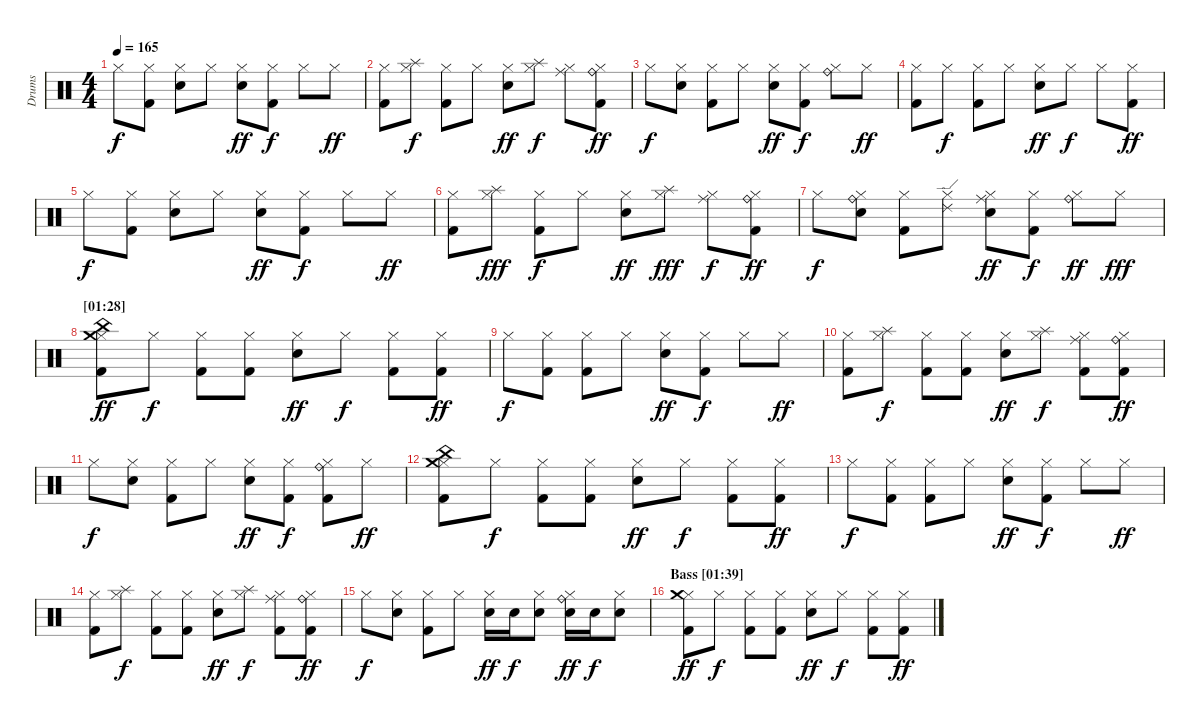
\track ("Drums" "Drums") {instrument percussion}
\staff {score}
\articulation defaults
\ts (4 4)
\tempo 165
\clef neutral
\ks c "Hi-Hat (closed)".8{dy f}
("Hi-Hat (closed)" "Kick (hit) 2").8 ("Hi-Hat (closed)" "Electric Snare (hit)").8 "Hi-Hat (closed)".8 ("Hi-Hat (closed)" "Electric Snare (hit)").8{dy ff} ("Hi-Hat (closed)" "Kick (hit) 2").8{dy f} "Hi-Hat (closed)".8 "Hi-Hat (closed)".8{dy ff} |
("Hi-Hat (closed)" "Kick (hit) 2").8 ("Hi-Hat (closed)" "Splash (hit)").8{dy f} ("Hi-Hat (closed)" "Kick (hit) 2").8 "Hi-Hat (closed)".8 ("Hi-Hat (closed)" "Electric Snare (hit)").8{dy ff} ("Hi-Hat (closed)" "Splash (hit)").8{dy f} ("Hi-Hat (closed)" "Ride (middle)").8 ("Hi-Hat (closed)" "Ride (bell)" "Kick (hit) 2").8{dy ff} |
"Hi-Hat (closed)".8{dy f} ("Hi-Hat (closed)" "Electric Snare (hit)").8 ("Hi-Hat (closed)" "Kick (hit) 2").8 "Hi-Hat (closed)".8 ("Hi-Hat (closed)" "Electric Snare (hit)").8{dy ff} ("Hi-Hat (closed)" "Kick (hit) 2").8{dy f} ("Hi-Hat (closed)" "Ride (bell)").8 "Hi-Hat (closed)".8{dy ff} |
("Hi-Hat (closed)" "Kick (hit) 2").8 "Hi-Hat (closed)".8{dy f} ("Hi-Hat (closed)" "Kick (hit) 2").8 "Hi-Hat (closed)".8 ("Hi-Hat (closed)" "Electric Snare (hit)").8{dy ff} "Hi-Hat (closed)".8{dy f} "Hi-Hat (closed)".8 ("Hi-Hat (closed)" "Kick (hit) 2").8{dy ff} |
"Hi-Hat (closed)".8{dy f} ("Hi-Hat (closed)" "Kick (hit) 2").8 ("Hi-Hat (closed)" "Electric Snare (hit)").8 "Hi-Hat (closed)".8 ("Hi-Hat (closed)" "Electric Snare (hit)").8{dy ff} ("Hi-Hat (closed)" "Kick (hit) 2").8{dy f} "Hi-Hat (closed)".8 "Hi-Hat (closed)".8{dy ff} |
\section ("" "")
("Hi-Hat (closed)" "Kick (hit) 2").8 ("Hi-Hat (closed)" "Splash (hit)").8{dy fff} ("Hi-Hat (closed)" "Kick (hit) 2").8{dy f} "Hi-Hat (closed)".8 ("Hi-Hat (closed)" "Electric Snare (hit)").8{dy ff} ("Hi-Hat (closed)" "Splash (hit)").8{dy fff} ("Hi-Hat (closed)" "Ride (middle)").8{dy f} ("Hi-Hat (closed)" "Ride (bell)" "Kick (hit) 2").8{dy ff} |
"Hi-Hat (closed)".8{dy f} ("Hi-Hat (closed)" "Ride (bell)" "Electric Snare (hit)").8 ("Hi-Hat (closed)" "Kick (hit) 2").8 ("Hi-Hat (closed)" "Ride (edge) 2").8 ("Hi-Hat (closed)" "Ride (middle)" "Electric Snare (hit)").8{dy ff} ("Hi-Hat (closed)" "Kick (hit) 2").8{dy f} ("Hi-Hat (closed)" "Ride (bell)").8{dy ff} "Hi-Hat (closed)".8{dy fff} |
\section ("" "[01:28]")
("Hi-Hat (closed)" "China (hit)" "Crash medium (hit)" "Kick (hit) 2").8{dy ff} "Hi-Hat (closed)".8{dy f} ("Hi-Hat (closed)" "Kick (hit) 2").8 ("Hi-Hat (closed)" "Kick (hit) 2").8 ("Hi-Hat (closed)" "Electric Snare (hit)").8{dy ff} "Hi-Hat (closed)".8{dy f} ("Hi-Hat (closed)" "Kick (hit) 2").8 ("Hi-Hat (closed)" "Kick (hit) 2").8{dy ff} |
"Hi-Hat (closed)".8{dy f} ("Hi-Hat (closed)" "Kick (hit) 2").8 ("Hi-Hat (closed)" "Kick (hit) 2").8 "Hi-Hat (closed)".8 ("Hi-Hat (closed)" "Electric Snare (hit)").8{dy ff} ("Hi-Hat (closed)" "Kick (hit) 2").8{dy f} "Hi-Hat (closed)".8 "Hi-Hat (closed)".8{dy ff} |
("Hi-Hat (closed)" "Kick (hit) 2").8 ("Hi-Hat (closed)" "Splash (hit)").8{dy f} ("Hi-Hat (closed)" "Kick (hit) 2").8 ("Hi-Hat (closed)" "Kick (hit) 2").8 ("Hi-Hat (closed)" "Electric Snare (hit)").8{dy ff} ("Hi-Hat (closed)" "Splash (hit)").8{dy f} ("Hi-Hat (closed)" "Ride (middle)" "Kick (hit) 2").8 ("Hi-Hat (closed)" "Ride (bell)" "Kick (hit) 2").8{dy ff} |
"Hi-Hat (closed)".8{dy f} ("Hi-Hat (closed)" "Electric Snare (hit)").8 ("Hi-Hat (closed)" "Kick (hit) 2").8 "Hi-Hat (closed)".8 ("Hi-Hat (closed)" "Electric Snare (hit)").8{dy ff} ("Hi-Hat (closed)" "Kick (hit) 2").8{dy f} ("Hi-Hat (closed)" "Ride (bell)" "Kick (hit) 2").8 "Hi-Hat (closed)".8{dy ff} |
("Hi-Hat (closed)" "China (hit)" "Crash medium (hit)" "Kick (hit) 2").8 "Hi-Hat (closed)".8{dy f} ("Hi-Hat (closed)" "Kick (hit) 2").8 ("Hi-Hat (closed)" "Kick (hit) 2").8 ("Hi-Hat (closed)" "Electric Snare (hit)").8{dy ff} "Hi-Hat (closed)".8{dy f} ("Hi-Hat (closed)" "Kick (hit) 2").8 ("Hi-Hat (closed)" "Kick (hit) 2").8{dy ff} |
"Hi-Hat (closed)".8{dy f} ("Hi-Hat (closed)" "Kick (hit) 2").8 ("Hi-Hat (closed)" "Kick (hit) 2").8 "Hi-Hat (closed)".8 ("Hi-Hat (closed)" "Electric Snare (hit)").8{dy ff} ("Hi-Hat (closed)" "Kick (hit) 2").8{dy f} "Hi-Hat (closed)".8 "Hi-Hat (closed)".8{dy ff} |
("Hi-Hat (closed)" "Kick (hit) 2").8 ("Hi-Hat (closed)" "Splash (hit)").8{dy f} ("Hi-Hat (closed)" "Kick (hit) 2").8 ("Hi-Hat (closed)" "Kick (hit) 2").8 ("Hi-Hat (closed)" "Electric Snare (hit)").8{dy ff} ("Hi-Hat (closed)" "Splash (hit)").8{dy f} ("Hi-Hat (closed)" "Ride (middle)" "Kick (hit) 2").8 ("Hi-Hat (closed)" "Ride (bell)" "Kick (hit) 2").8{dy ff} |
"Hi-Hat (closed)".8{dy f} ("Hi-Hat (closed)" "Electric Snare (hit)").8 ("Hi-Hat (closed)" "Kick (hit) 2").8 "Hi-Hat (closed)".8 ("Hi-Hat (closed)" "Electric Snare (hit)").16{dy ff} "Electric Snare (hit)".16{dy f} ("Hi-Hat (closed)" "Electric Snare (hit)").8 ("Hi-Hat (closed)" "Ride (bell)" "Electric Snare (hit)").16{dy ff} "Electric Snare (hit)".16{dy f} ("Hi-Hat (closed)" "Electric Snare (hit)").8 |
\section ("" "Bass [01:39]")
("Hi-Hat (closed)" "Crash medium (hit)" "Kick (hit) 2").8{dy ff} "Hi-Hat (closed)".8{dy f} ("Hi-Hat (closed)" "Kick (hit) 2").8 ("Hi-Hat (closed)" "Kick (hit) 2").8 ("Hi-Hat (closed)" "Electric Snare (hit)").8{dy ff} "Hi-Hat (closed)".8{dy f} ("Hi-Hat (closed)" "Kick (hit) 2").8 ("Hi-Hat (closed)" "Kick (hit) 2").8{dy ff}
